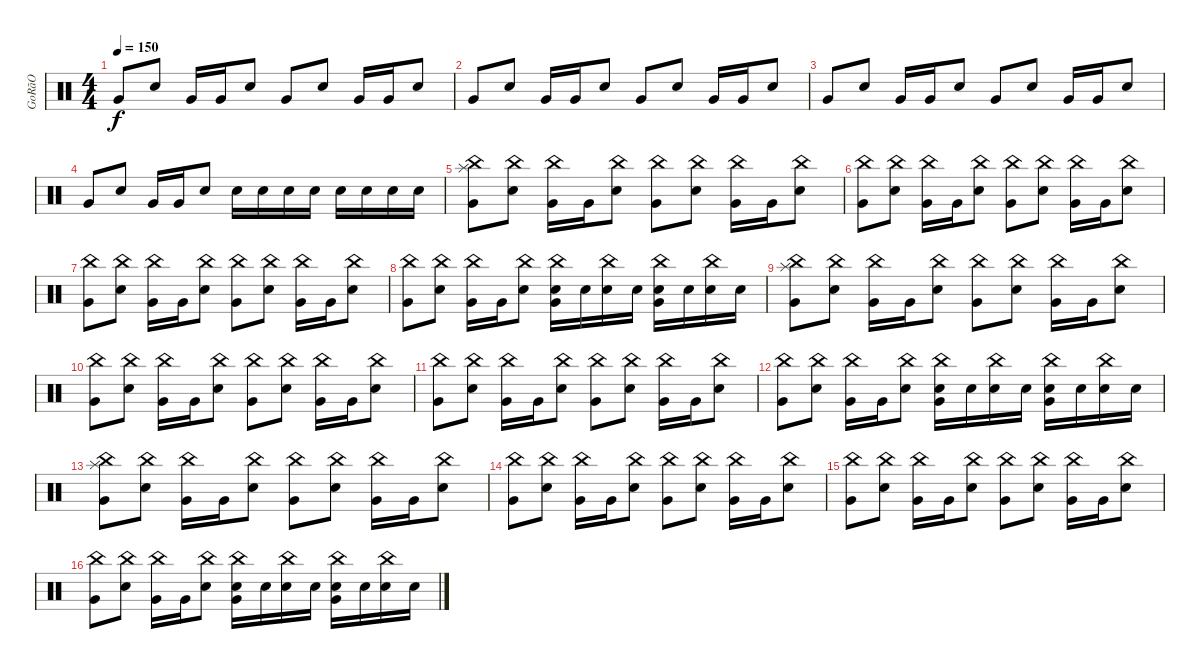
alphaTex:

\track ("GoRãO" "GoRãO") {instrument percussion}
\staff {score}
\articulation defaults
\ts (4 4)
\tempo 150
\clef neutral
\ks c "Very Low Tom (hit)".8{dy f} "Electric Snare (hit)".8 "Very Low Tom (hit)".16 "Very Low Tom (hit)".16 "Electric Snare (hit)".8 "Very Low Tom (hit)".8 "Electric Snare (hit)".8 "Very Low Tom (hit)".16 "Very Low Tom (hit)".16 "Electric Snare (hit)".8
|
"Very Low Tom (hit)".8 "Electric Snare (hit)".8 "Very Low Tom (hit)".16 "Very Low Tom (hit)".16 "Electric Snare (hit)".8 "Very Low Tom (hit)".8 "Electric Snare (hit)".8 "Very Low Tom (hit)".16 "Very Low Tom (hit)".16 "Electric Snare (hit)".8 |
"Very Low Tom (hit)".8 "Electric Snare (hit)".8 "Very Low Tom (hit)".16 "Very Low Tom (hit)".16 "Electric Snare (hit)".8 "Very Low Tom (hit)".8 "Electric Snare (hit)".8 "Very Low Tom (hit)".16 "Very Low Tom (hit)".16 "Electric Snare (hit)".8 |
"Very Low Tom (hit)".8 "Electric Snare (hit)".8 "Very Low Tom (hit)".16 "Very Low Tom (hit)".16 "Electric Snare (hit)".8 "Snare (hit) 2".16 "Snare (hit) 2".16 "Snare (hit) 2".16 "Snare (hit) 2".16 "Snare (hit) 2".16 "Snare (hit) 2".16 "Snare (hit) 2".16 "Snare (hit) 2".16 |
("Very Low Tom (hit)" "Splash (hit)" "China (hit)").8 ("Electric Snare (hit)" "China (hit)").8 ("Very Low Tom (hit)" "China (hit)").16 "Very Low Tom (hit)".16 ("Electric Snare (hit)" "China (hit)").8 ("Very Low Tom (hit)" "China (hit)").8 ("Electric Snare (hit)" "China (hit)").8 ("Very Low Tom (hit)" "China (hit)").16 "Very Low Tom (hit)".16 ("Electric Snare (hit)" "China (hit)").8 |
("Very Low Tom (hit)" "China (hit)").8 ("Electric Snare (hit)" "China (hit)").8 ("Very Low Tom (hit)" "China (hit)").16 "Very Low Tom (hit)".16 ("Electric Snare (hit)" "China (hit)").8 ("Very Low Tom (hit)" "China (hit)").8 ("Electric Snare (hit)" "China (hit)").8 ("Very Low Tom (hit)" "China (hit)").16 "Very Low Tom (hit)".16 ("Electric Snare (hit)" "China (hit)").8 |
("Very Low Tom (hit)" "China (hit)").8 ("Electric Snare (hit)" "China (hit)").8 ("Very Low Tom (hit)" "China (hit)").16 "Very Low Tom (hit)".16 ("Electric Snare (hit)" "China (hit)").8 ("Very Low Tom (hit)" "China (hit)").8 ("Electric Snare (hit)" "China (hit)").8 ("Very Low Tom (hit)" "China (hit)").16 "Very Low Tom (hit)".16 ("Electric Snare (hit)" "China (hit)").8 |
("Very Low Tom (hit)" "China (hit)").8 ("Electric Snare (hit)" "China (hit)").8 ("Very Low Tom (hit)" "China (hit)").16 "Very Low Tom (hit)".16 ("Electric Snare (hit)" "China (hit)").8 ("Snare (hit) 2" "Very Low Tom (hit)" "China (hit)").16 "Snare (hit) 2".16 ("Snare (hit) 2" "China (hit)").16 "Snare (hit) 2".16 ("Snare (hit) 2" "Very Low Tom (hit)" "China (hit)").16 "Snare (hit) 2".16 ("Snare (hit) 2" "China (hit)").16 "Snare (hit) 2".16 |
("Very Low Tom (hit)" "Splash (hit)" "China (hit)").8 ("Electric Snare (hit)" "China (hit)").8 ("Very Low Tom (hit)" "China (hit)").16 "Very Low Tom (hit)".16 ("Electric Snare (hit)" "China (hit)").8 ("Very Low Tom (hit)" "China (hit)").8 ("Electric Snare (hit)" "China (hit)").8 ("Very Low Tom (hit)" "China (hit)").16 "Very Low Tom (hit)".16 ("Electric Snare (hit)" "China (hit)").8 |
("Very Low Tom (hit)" "China (hit)").8 ("Electric Snare (hit)" "China (hit)").8 ("Very Low Tom (hit)" "China (hit)").16 "Very Low Tom (hit)".16 ("Electric Snare (hit)" "China (hit)").8 ("Very Low Tom (hit)" "China (hit)").8 ("Electric Snare (hit)" "China (hit)").8 ("Very Low Tom (hit)" "China (hit)").16 "Very Low Tom (hit)".16 ("Electric Snare (hit)" "China (hit)").8 |
("Very Low Tom (hit)" "China (hit)").8 ("Electric Snare (hit)" "China (hit)").8 ("Very Low Tom (hit)" "China (hit)").16 "Very Low Tom (hit)".16 ("Electric Snare (hit)" "China (hit)").8 ("Very Low Tom (hit)" "China (hit)").8 ("Electric Snare (hit)" "China (hit)").8 ("Very Low Tom (hit)" "China (hit)").16 "Very Low Tom (hit)".16 ("Electric Snare (hit)" "China (hit)").8 |
("Very Low Tom (hit)" "China (hit)").8 ("Electric Snare (hit)" "China (hit)").8 ("Very Low Tom (hit)" "China (hit)").16 "Very Low Tom (hit)".16 ("Electric Snare (hit)" "China (hit)").8 ("Snare (hit) 2" "Very Low Tom (hit)" "China (hit)").16 "Snare (hit) 2".16 ("Snare (hit) 2" "China (hit)").16 "Snare (hit) 2".16 ("Snare (hit) 2" "Very Low Tom (hit)" "China (hit)").16 "Snare (hit) 2".16 ("Snare (hit) 2" "China (hit)").16 "Snare (hit) 2".16 |
("Very Low Tom (hit)" "Splash (hit)" "China (hit)").8 ("Electric Snare (hit)" "China (hit)").8 ("Very Low Tom (hit)" "China (hit)").16 "Very Low Tom (hit)".16 ("Electric Snare (hit)" "China (hit)").8 ("Very Low Tom (hit)" "China (hit)").8 ("Electric Snare (hit)" "China (hit)").8 ("Very Low Tom (hit)" "China (hit)").16 "Very Low Tom (hit)".16 ("Electric Snare (hit)" "China (hit)").8 |
("Very Low Tom (hit)" "China (hit)").8 ("Electric Snare (hit)" "China (hit)").8 ("Very Low Tom (hit)" "China (hit)").16 "Very Low Tom (hit)".16 ("Electric Snare (hit)" "China (hit)").8 ("Very Low Tom (hit)" "China (hit)").8 ("Electric Snare (hit)" "China (hit)").8 ("Very Low Tom (hit)" "China (hit)").16 "Very Low Tom (hit)".16 ("Electric Snare (hit)" "China (hit)").8 |
("Very Low Tom (hit)" "China (hit)").8 ("Electric Snare (hit)" "China (hit)").8 ("Very Low Tom (hit)" "China (hit)").16 "Very Low Tom (hit)".16 ("Electric Snare (hit)" "China (hit)").8 ("Very Low Tom (hit)" "China (hit)").8 ("Electric Snare (hit)" "China (hit)").8 ("Very Low Tom (hit)" "China (hit)").16 "Very Low Tom (hit)".16 ("Electric Snare (hit)" "China (hit)").8 |
("Very Low Tom (hit)" "China (hit)").8 ("Electric Snare (hit)" "China (hit)").8 ("Very Low Tom (hit)" "China (hit)").16 "Very Low Tom (hit)".16 ("Electric Snare (hit)" "China (hit)").8 ("Snare (hit) 2" "Very Low Tom (hit)" "China (hit)").16 "Snare (hit) 2".16 ("Snare (hit) 2" "China (hit)").16 "Snare (hit) 2".16 ("Snare (hit) 2" "Very Low Tom (hit)" "China (hit)").16 "Snare (hit) 2".16 ("Snare (hit) 2" "China (hit)").16 "Snare (hit) 2".16
